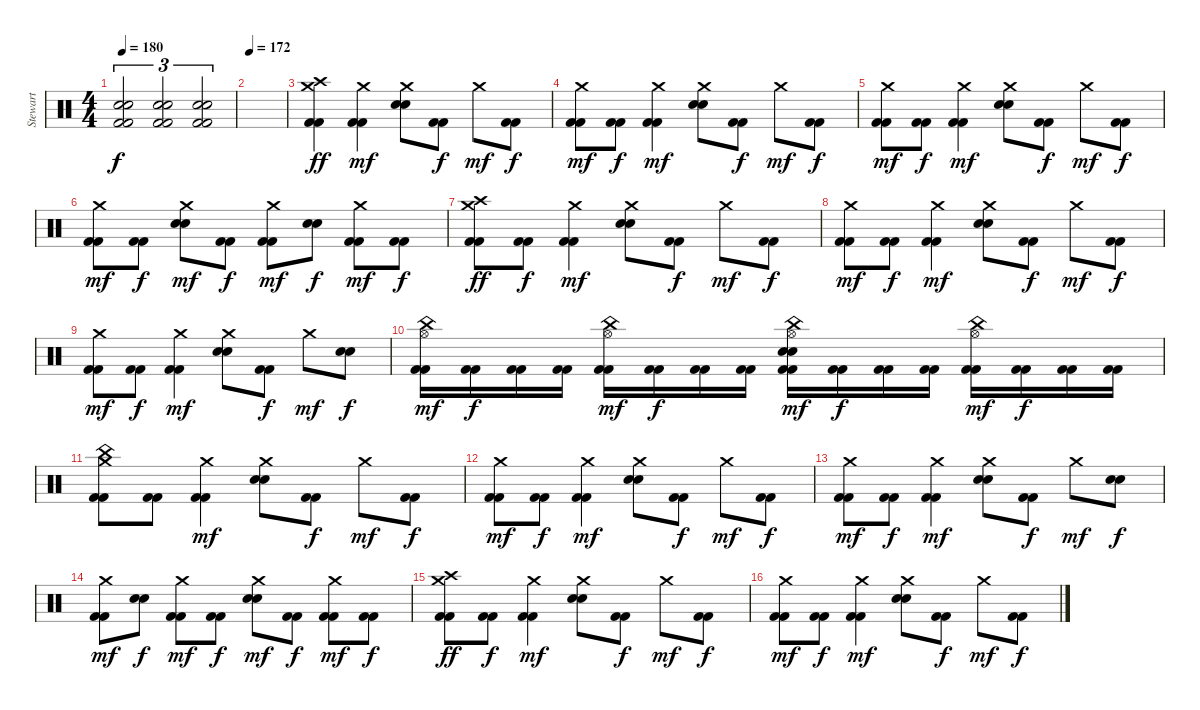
\track ("Stewart" "Stewart") {instrument percussion}
\staff {score}
\articulation defaults
\ts (4 4)
\tempo 180
\clef neutral
\ks c
("Electric Snare (hit)" "Electric Snare (hit)" "Kick (hit) 2" "Kick (hit) 2").2{tu (3 2) dy f} ("Electric Snare (hit)" "Electric Snare (hit)" "Kick (hit) 2" "Kick (hit) 2").2{tu (3 2)} ("Electric Snare (hit)" "Electric Snare (hit)" "Kick (hit) 2" "Kick (hit) 2").2{tu (3 2)} |
\tempo 172
|
("Crash medium (hit)" "Crash high (hit)" "Kick (hit) 2" "Kick (hit) 2").4{dy ff} ("Crash medium (hit)" "Kick (hit) 2" "Kick (hit) 2").4{dy mf} ("Crash medium (hit)" "Electric Snare (hit)" "Electric Snare (hit)").8 ("Kick (hit) 2" "Kick (hit) 2").8{dy f} "Crash medium (hit)".8{dy mf} ("Kick (hit) 2" "Kick (hit) 2").8{dy f} |
("Crash medium (hit)" "Kick (hit) 2" "Kick (hit) 2").8{dy mf} ("Kick (hit) 2" "Kick (hit) 2").8{dy f} ("Crash medium (hit)" "Kick (hit) 2" "Kick (hit) 2").4{dy mf} ("Crash medium (hit)" "Electric Snare (hit)" "Electric Snare (hit)").8 ("Kick (hit) 2" "Kick (hit) 2").8{dy f} "Crash medium (hit)".8{dy mf} ("Kick (hit) 2" "Kick (hit) 2").8{dy f} |
("Crash medium (hit)" "Kick (hit) 2" "Kick (hit) 2").8{dy mf} ("Kick (hit) 2" "Kick (hit) 2").8{dy f} ("Crash medium (hit)" "Kick (hit) 2" "Kick (hit) 2").4{dy mf} ("Crash medium (hit)" "Electric Snare (hit)" "Electric Snare (hit)").8 ("Kick (hit) 2" "Kick (hit) 2").8{dy f} "Crash medium (hit)".8{dy mf} ("Kick (hit) 2" "Kick (hit) 2").8{dy f} |
("Crash medium (hit)" "Kick (hit) 2" "Kick (hit) 2").8{dy mf} ("Kick (hit) 2" "Kick (hit) 2").8{dy f} ("Crash medium (hit)" "Electric Snare (hit)" "Electric Snare (hit)").8{dy mf} ("Kick (hit) 2" "Kick (hit) 2").8{dy f} ("Crash medium (hit)" "Kick (hit) 2" "Kick (hit) 2").8{dy mf} ("Electric Snare (hit)" "Electric Snare (hit)").8{dy f} ("Crash medium (hit)" "Kick (hit) 2" "Kick (hit) 2").8{dy mf} ("Kick (hit) 2" "Kick (hit) 2").8{dy f} |
("Crash medium (hit)" "Crash high (hit)" "Kick (hit) 2" "Kick (hit) 2").8{dy ff} ("Kick (hit) 2" "Kick (hit) 2").8{dy f} ("Crash medium (hit)" "Kick (hit) 2" "Kick (hit) 2").4{dy mf} ("Crash medium (hit)" "Electric Snare (hit)" "Electric Snare (hit)").8 ("Kick (hit) 2" "Kick (hit) 2").8{dy f} "Crash medium (hit)".8{dy mf} ("Kick (hit) 2" "Kick (hit) 2").8{dy f} |
("Crash medium (hit)" "Kick (hit) 2" "Kick (hit) 2").8{dy mf} ("Kick (hit) 2" "Kick (hit) 2").8{dy f} ("Crash medium (hit)" "Kick (hit) 2" "Kick (hit) 2").4{dy mf} ("Crash medium (hit)" "Electric Snare (hit)" "Electric Snare (hit)").8 ("Kick (hit) 2" "Kick (hit) 2").8{dy f} "Crash medium (hit)".8{dy mf} ("Kick (hit) 2" "Kick (hit) 2").8{dy f} |
("Crash medium (hit)" "Kick (hit) 2" "Kick (hit) 2").8{dy mf} ("Kick (hit) 2" "Kick (hit) 2").8{dy f} ("Crash medium (hit)" "Kick (hit) 2" "Kick (hit) 2").4{dy mf} ("Crash medium (hit)" "Electric Snare (hit)" "Electric Snare (hit)").8 ("Kick (hit) 2" "Kick (hit) 2").8{dy f} "Crash medium (hit)".8{dy mf} ("Electric Snare (hit)" "Electric Snare (hit)").8{dy f} |
("China (hit)" "Hi-Hat (open)" "Kick (hit) 2" "Kick (hit) 2").16{dy mf} ("Kick (hit) 2" "Kick (hit) 2").16{dy f} ("Kick (hit) 2" "Kick (hit) 2").16 ("Kick (hit) 2" "Kick (hit) 2").16 ("China (hit)" "Hi-Hat (open)" "Kick (hit) 2" "Kick (hit) 2").16{dy mf} ("Kick (hit) 2" "Kick (hit) 2").16{dy f} ("Kick (hit) 2" "Kick (hit) 2").16 ("Kick (hit) 2" "Kick (hit) 2").16 ("China (hit)" "Hi-Hat (open)" "Electric Snare (hit)" "Electric Snare (hit)" "Kick (hit) 2" "Kick (hit) 2").16{dy mf} ("Kick (hit) 2" "Kick (hit) 2").16{dy f} ("Kick (hit) 2" "Kick (hit) 2").16 ("Kick (hit) 2" "Kick (hit) 2").16 ("China (hit)" "Hi-Hat (open)" "Kick (hit) 2" "Kick (hit) 2").16{dy mf} ("Kick (hit) 2" "Kick (hit) 2").16{dy f} ("Kick (hit) 2" "Kick (hit) 2").16 ("Kick (hit) 2" "Kick (hit) 2").16 |
("Crash medium (hit)" "China (hit)" "Kick (hit) 2" "Kick (hit) 2").8 ("Kick (hit) 2" "Kick (hit) 2").8 ("Crash medium (hit)" "Kick (hit) 2" "Kick (hit) 2").4{dy mf} ("Crash medium (hit)" "Electric Snare (hit)" "Electric Snare (hit)").8 ("Kick (hit) 2" "Kick (hit) 2").8{dy f} "Crash medium (hit)".8{dy mf} ("Kick (hit) 2" "Kick (hit) 2").8{dy f} |
("Crash medium (hit)" "Kick (hit) 2" "Kick (hit) 2").8{dy mf} ("Kick (hit) 2" "Kick (hit) 2").8{dy f} ("Crash medium (hit)" "Kick (hit) 2" "Kick (hit) 2").4{dy mf} ("Crash medium (hit)" "Electric Snare (hit)" "Electric Snare (hit)").8 ("Kick (hit) 2" "Kick (hit) 2").8{dy f} "Crash medium (hit)".8{dy mf} ("Kick (hit) 2" "Kick (hit) 2").8{dy f} |
("Crash medium (hit)" "Kick (hit) 2" "Kick (hit) 2").8{dy mf} ("Kick (hit) 2" "Kick (hit) 2").8{dy f} ("Crash medium (hit)" "Kick (hit) 2" "Kick (hit) 2").4{dy mf} ("Crash medium (hit)" "Electric Snare (hit)" "Electric Snare (hit)").8 ("Kick (hit) 2" "Kick (hit) 2").8{dy f} "Crash medium (hit)".8{dy mf} ("Electric Snare (hit)" "Electric Snare (hit)").8{dy f} |
("Crash medium (hit)" "Kick (hit) 2" "Kick (hit) 2").8{dy mf} ("Electric Snare (hit)" "Electric Snare (hit)").8{dy f} ("Crash medium (hit)" "Kick (hit) 2" "Kick (hit) 2").8{dy mf} ("Kick (hit) 2" "Kick (hit) 2").8{dy f} ("Crash medium (hit)" "Electric Snare (hit)" "Electric Snare (hit)").8{dy mf} ("Kick (hit) 2" "Kick (hit) 2").8{dy f} ("Crash medium (hit)" "Kick (hit) 2" "Kick (hit) 2").8{dy mf} ("Kick (hit) 2" "Kick (hit) 2").8{dy f} |
("Crash medium (hit)" "Crash high (hit)" "Kick (hit) 2" "Kick (hit) 2").8{dy ff} ("Kick (hit) 2" "Kick (hit) 2").8{dy f} ("Crash medium (hit)" "Kick (hit) 2" "Kick (hit) 2").4{dy mf} ("Crash medium (hit)" "Electric Snare (hit)" "Electric Snare (hit)").8 ("Kick (hit) 2" "Kick (hit) 2").8{dy f} "Crash medium (hit)".8{dy mf} ("Kick (hit) 2" "Kick (hit) 2").8{dy f} |
("Crash medium (hit)" "Kick (hit) 2" "Kick (hit) 2").8{dy mf} ("Kick (hit) 2" "Kick (hit) 2").8{dy f} ("Crash medium (hit)" "Kick (hit) 2" "Kick (hit) 2").4{dy mf} ("Crash medium (hit)" "Electric Snare (hit)" "Electric Snare (hit)").8 ("Kick (hit) 2" "Kick (hit) 2").8{dy f} "Crash medium (hit)".8{dy mf} ("Kick (hit) 2" "Kick (hit) 2").8{dy f}
